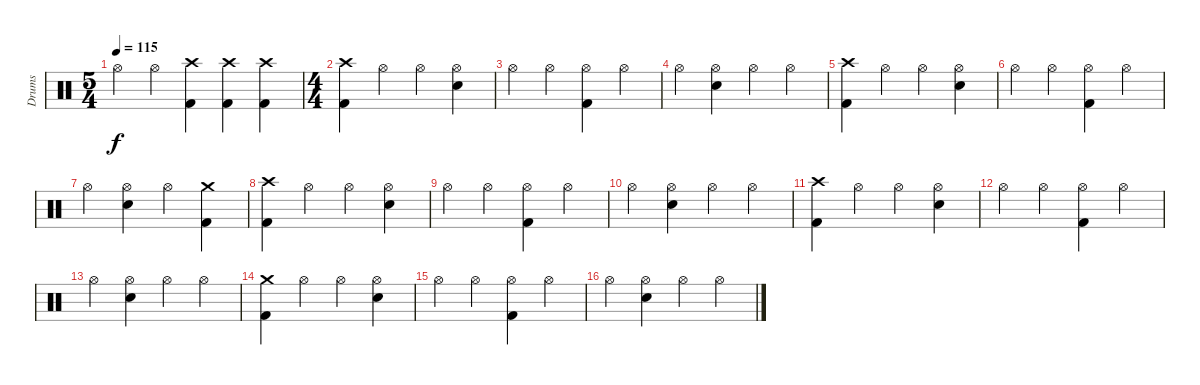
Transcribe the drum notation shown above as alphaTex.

\track ("Drums" "Drums") {instrument percussion}
\staff {score}
\articulation defaults
\ts (5 4)
\tempo 115
\clef neutral
\ks c "Hi-Hat (open)".4{dy f} "Hi-Hat (open)".4
("Crash high (hit)" "Kick (hit) 2").4 ("Crash high (hit)" "Kick (hit) 2").4 ("Crash high (hit)" "Kick (hit) 2").4 |
\ts (4 4)
("Crash high (hit)" "Kick (hit) 2").4 "Hi-Hat (open)".4 "Hi-Hat (open)".4 ("Hi-Hat (open)" "Electric Snare (hit)").4 |
"Hi-Hat (open)".4 "Hi-Hat (open)".4 ("Hi-Hat (open)" "Kick (hit) 2").4 "Hi-Hat (open)".4 |
"Hi-Hat (open)".4 ("Hi-Hat (open)" "Electric Snare (hit)").4 "Hi-Hat (open)".4 "Hi-Hat (open)".4 |
("Crash high (hit)" "Kick (hit) 2").4 "Hi-Hat (open)".4 "Hi-Hat (open)".4 ("Hi-Hat (open)" "Electric Snare (hit)").4 |
"Hi-Hat (open)".4 "Hi-Hat (open)".4 ("Hi-Hat (open)" "Kick (hit) 2").4 "Hi-Hat (open)".4 |
"Hi-Hat (open)".4 ("Hi-Hat (open)" "Electric Snare (hit)").4 "Hi-Hat (open)".4 ("Crash medium (hit)" "Kick (hit) 2").4 |
("Crash high (hit)" "Kick (hit) 2").4 "Hi-Hat (open)".4 "Hi-Hat (open)".4 ("Hi-Hat (open)" "Electric Snare (hit)").4 |
"Hi-Hat (open)".4 "Hi-Hat (open)".4 ("Hi-Hat (open)" "Kick (hit) 2").4 "Hi-Hat (open)".4 |
"Hi-Hat (open)".4 ("Hi-Hat (open)" "Electric Snare (hit)").4 "Hi-Hat (open)".4 "Hi-Hat (open)".4 |
("Crash high (hit)" "Kick (hit) 2").4 "Hi-Hat (open)".4 "Hi-Hat (open)".4 ("Hi-Hat (open)" "Electric Snare (hit)").4 |
"Hi-Hat (open)".4 "Hi-Hat (open)".4 ("Hi-Hat (open)" "Kick (hit) 2").4 "Hi-Hat (open)".4 |
"Hi-Hat (open)".4 ("Hi-Hat (open)" "Electric Snare (hit)").4 "Hi-Hat (open)".4 "Hi-Hat (open)".4 |
("Crash medium (hit)" "Kick (hit) 2").4 "Hi-Hat (open)".4 "Hi-Hat (open)".4 ("Hi-Hat (open)" "Electric Snare (hit)").4 |
"Hi-Hat (open)".4 "Hi-Hat (open)".4 ("Hi-Hat (open)" "Kick (hit) 2").4 "Hi-Hat (open)".4 |
"Hi-Hat (open)".4 ("Hi-Hat (open)" "Electric Snare (hit)").4 "Hi-Hat (open)".4 "Hi-Hat (open)".4
